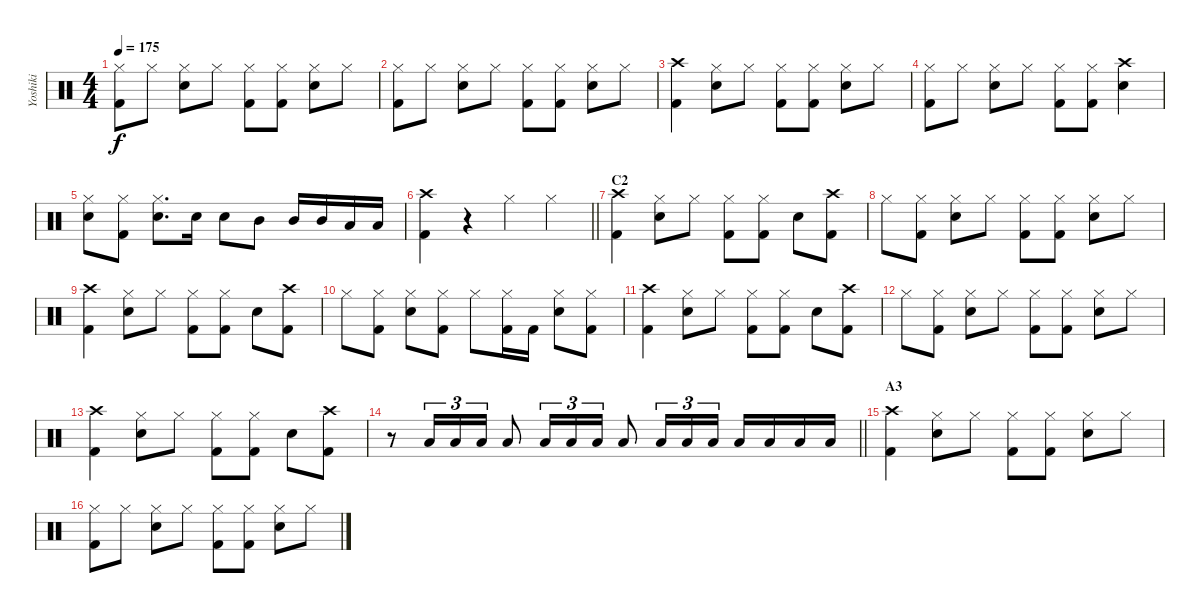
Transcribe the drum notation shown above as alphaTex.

\track ("Yoshiki" "Yoshiki") {instrument percussion}
\staff {score}
\articulation defaults
\ts (4 4)
\tempo 175
\clef neutral
\ks c
("Hi-Hat (closed)" "Kick (hit) 2").8{dy f} "Hi-Hat (closed)".8 ("Hi-Hat (closed)" "Electric Snare (hit)").8 "Hi-Hat (closed)".8 ("Hi-Hat (closed)" "Kick (hit) 2").8 ("Hi-Hat (closed)" "Kick (hit) 2").8 ("Hi-Hat (closed)" "Electric Snare (hit)").8 "Hi-Hat (closed)".8 |
("Hi-Hat (closed)" "Kick (hit) 2").8 "Hi-Hat (closed)".8 ("Hi-Hat (closed)" "Electric Snare (hit)").8 "Hi-Hat (closed)".8 ("Hi-Hat (closed)" "Kick (hit) 2").8 ("Hi-Hat (closed)" "Kick (hit) 2").8 ("Hi-Hat (closed)" "Electric Snare (hit)").8 "Hi-Hat (closed)".8 |
("Crash high (hit)" "Kick (hit) 2").4 ("Hi-Hat (closed)" "Electric Snare (hit)").8 "Hi-Hat (closed)".8 ("Hi-Hat (closed)" "Kick (hit) 2").8 ("Hi-Hat (closed)" "Kick (hit) 2").8 ("Hi-Hat (closed)" "Electric Snare (hit)").8 "Hi-Hat (closed)".8 |
("Hi-Hat (closed)" "Kick (hit) 2").8 "Hi-Hat (closed)".8 ("Hi-Hat (closed)" "Electric Snare (hit)").8 "Hi-Hat (closed)".8 ("Hi-Hat (closed)" "Kick (hit) 2").8 ("Hi-Hat (closed)" "Kick (hit) 2").8 ("Crash high (hit)" "Electric Snare (hit)").4 |
("Hi-Hat (closed)" "Electric Snare (hit)").8 ("Hi-Hat (closed)" "Kick (hit) 2").8 ("Hi-Hat (closed)" "Electric Snare (hit)").8{d} "Electric Snare (hit)".16 "Electric Snare (hit)".8 "Mid Tom (hit)".8 "Mid Tom (hit)".16 "Mid Tom (hit)".16 "Low Tom (hit)".16 "Low Tom (hit)".16 |
\barLineRight lightlight
("Crash high (hit)" "Kick (hit) 2").4 r.4 "Hi-Hat (closed)".4 "Hi-Hat (closed)".4 |
\section ("" "C2")
("Crash high (hit)" "Kick (hit) 2").4 ("Hi-Hat (closed)" "Electric Snare (hit)").8 "Hi-Hat (closed)".8 ("Hi-Hat (closed)" "Kick (hit) 2").8 ("Hi-Hat (closed)" "Kick (hit) 2").8 "Electric Snare (hit)".8 ("Crash high (hit)" "Kick (hit) 2").8 |
"Hi-Hat (closed)".8 ("Hi-Hat (closed)" "Kick (hit) 2").8 ("Hi-Hat (closed)" "Electric Snare (hit)").8 "Hi-Hat (closed)".8 ("Hi-Hat (closed)" "Kick (hit) 2").8 ("Hi-Hat (closed)" "Kick (hit) 2").8 ("Hi-Hat (closed)" "Electric Snare (hit)").8 "Hi-Hat (closed)".8 |
("Crash high (hit)" "Kick (hit) 2").4 ("Hi-Hat (closed)" "Electric Snare (hit)").8 "Hi-Hat (closed)".8 ("Hi-Hat (closed)" "Kick (hit) 2").8 ("Hi-Hat (closed)" "Kick (hit) 2").8 "Electric Snare (hit)".8 ("Crash high (hit)" "Kick (hit) 2").8 |
"Hi-Hat (closed)".8 ("Hi-Hat (closed)" "Kick (hit) 2").8 ("Hi-Hat (closed)" "Electric Snare (hit)").8 ("Hi-Hat (closed)" "Kick (hit) 2").8 "Hi-Hat (closed)".8 ("Hi-Hat (closed)" "Kick (hit) 2").16 "Kick (hit) 2".16 ("Hi-Hat (closed)" "Electric Snare (hit)").8 ("Hi-Hat (closed)" "Kick (hit) 2").8 |
("Crash high (hit)" "Kick (hit) 2").4 ("Hi-Hat (closed)" "Electric Snare (hit)").8 "Hi-Hat (closed)".8 ("Hi-Hat (closed)" "Kick (hit) 2").8 ("Hi-Hat (closed)" "Kick (hit) 2").8 "Electric Snare (hit)".8 ("Crash high (hit)" "Kick (hit) 2").8 |
"Hi-Hat (closed)".8 ("Hi-Hat (closed)" "Kick (hit) 2").8 ("Hi-Hat (closed)" "Electric Snare (hit)").8 "Hi-Hat (closed)".8 ("Hi-Hat (closed)" "Kick (hit) 2").8 ("Hi-Hat (closed)" "Kick (hit) 2").8 ("Hi-Hat (closed)" "Electric Snare (hit)").8 "Hi-Hat (closed)".8 |
("Crash high (hit)" "Kick (hit) 2").4 ("Hi-Hat (closed)" "Electric Snare (hit)").8 "Hi-Hat (closed)".8 ("Hi-Hat (closed)" "Kick (hit) 2").8 ("Hi-Hat (closed)" "Kick (hit) 2").8 "Electric Snare (hit)".8 ("Crash high (hit)" "Kick (hit) 2").8 |
\barLineRight lightlight
r.8 "Low Tom (hit)".16{tu (3 2)} "Low Tom (hit)".16{tu (3 2)} "Low Tom (hit)".16{tu (3 2)} "Low Tom (hit)".8 "Low Tom (hit)".16{tu (3 2)} "Low Tom (hit)".16{tu (3 2)} "Low Tom (hit)".16{tu (3 2)} "Low Tom (hit)".8 "Low Tom (hit)".16{tu (3 2)} "Low Tom (hit)".16{tu (3 2)} "Low Tom (hit)".16{tu (3 2)} "Low Tom (hit)".16 "Low Tom (hit)".16 "Low Tom (hit)".16 "Low Tom (hit)".16 |
\section ("" "A3")
("Crash high (hit)" "Kick (hit) 2").4 ("Hi-Hat (closed)" "Electric Snare (hit)").8 "Hi-Hat (closed)".8 ("Hi-Hat (closed)" "Kick (hit) 2").8 ("Hi-Hat (closed)" "Kick (hit) 2").8 ("Hi-Hat (closed)" "Electric Snare (hit)").8 "Hi-Hat (closed)".8 |
("Hi-Hat (closed)" "Kick (hit) 2").8 "Hi-Hat (closed)".8 ("Hi-Hat (closed)" "Electric Snare (hit)").8 "Hi-Hat (closed)".8 ("Hi-Hat (closed)" "Kick (hit) 2").8 ("Hi-Hat (closed)" "Kick (hit) 2").8 ("Hi-Hat (closed)" "Electric Snare (hit)").8 "Hi-Hat (closed)".8
